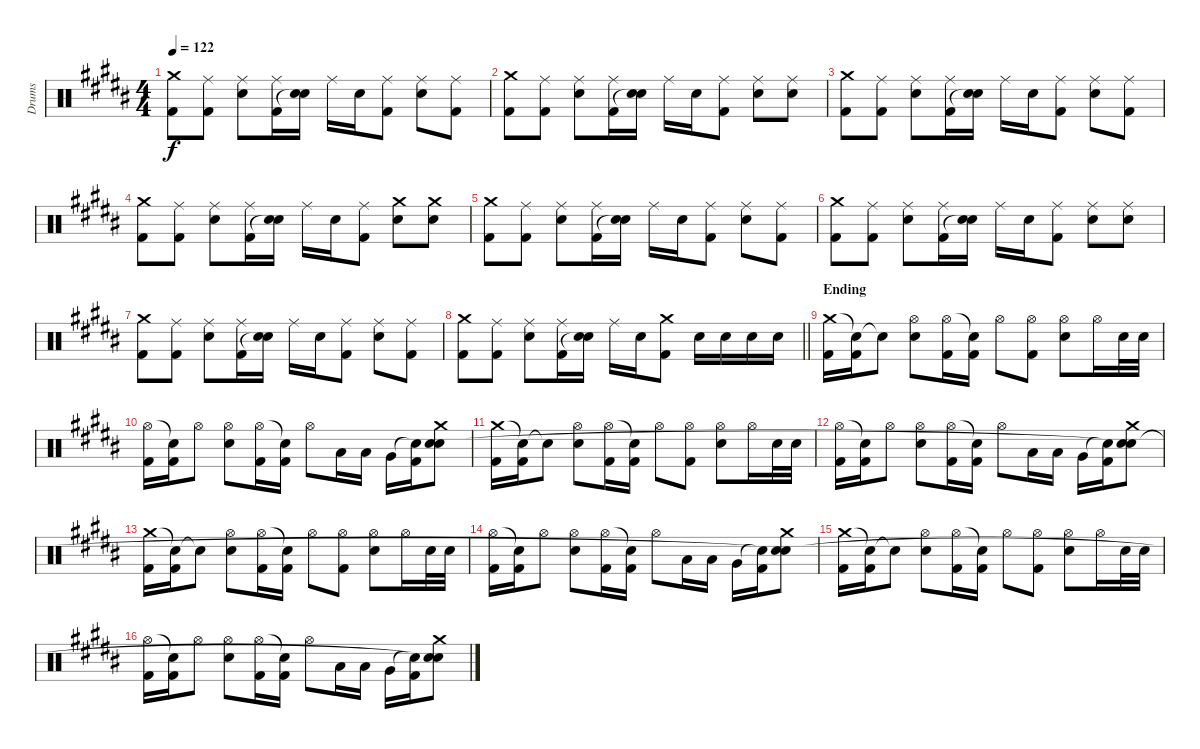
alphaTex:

\track ("Drums" "Drums") {instrument percussion}
\staff {score}
\articulation defaults
\ts (4 4)
\tempo 122
\clef neutral
\ks g#minor
("Crash medium (hit)" "Kick (hit) 2").8{dy f} ("Ride (middle)" "Kick (hit) 2").8 ("Ride (middle)" "Electric Snare (hit)").8 ("Ride (middle)" "Kick (hit) 2").16 ("Electric Snare (hit)" "Snare (hit)"{t}).16 "Ride (middle)".16 "Electric Snare (hit)".16 ("Ride (middle)" "Kick (hit) 2").8 ("Ride (middle)" "Electric Snare (hit)").8 ("Ride (middle)" "Kick (hit) 2").8 |
("Crash medium (hit)" "Kick (hit) 2").8 ("Ride (middle)" "Kick (hit) 2").8 ("Ride (middle)" "Electric Snare (hit)").8 ("Ride (middle)" "Kick (hit) 2").16 ("Electric Snare (hit)" "Snare (hit)"{t}).16 "Ride (middle)".16 "Electric Snare (hit)".16 ("Ride (middle)" "Kick (hit) 2").8 ("Ride (middle)" "Electric Snare (hit)").8 ("Ride (middle)" "Electric Snare (hit)").8 |
("Crash medium (hit)" "Kick (hit) 2").8 ("Ride (middle)" "Kick (hit) 2").8 ("Ride (middle)" "Electric Snare (hit)").8 ("Ride (middle)" "Kick (hit) 2").16 ("Electric Snare (hit)" "Snare (hit)"{t}).16 "Ride (middle)".16 "Electric Snare (hit)".16 ("Ride (middle)" "Kick (hit) 2").8 ("Ride (middle)" "Electric Snare (hit)").8 ("Ride (middle)" "Kick (hit) 2").8 |
("Crash medium (hit)" "Kick (hit) 2").8 ("Ride (middle)" "Kick (hit) 2").8 ("Ride (middle)" "Electric Snare (hit)").8 ("Ride (middle)" "Kick (hit) 2").16 ("Electric Snare (hit)" "Snare (hit)"{t}).16 "Ride (middle)".16 "Electric Snare (hit)".16 ("Ride (middle)" "Kick (hit) 2").8 ("Crash medium (hit)" "Electric Snare (hit)").8 ("Crash medium (hit)" "Electric Snare (hit)").8 |
("Crash medium (hit)" "Kick (hit) 2").8 ("Ride (middle)" "Kick (hit) 2").8 ("Ride (middle)" "Electric Snare (hit)").8 ("Ride (middle)" "Kick (hit) 2").16 ("Electric Snare (hit)" "Snare (hit)"{t}).16 "Ride (middle)".16 "Electric Snare (hit)".16 ("Ride (middle)" "Kick (hit) 2").8 ("Ride (middle)" "Electric Snare (hit)").8 ("Ride (middle)" "Kick (hit) 2").8 |
("Crash medium (hit)" "Kick (hit) 2").8 ("Ride (middle)" "Kick (hit) 2").8 ("Ride (middle)" "Electric Snare (hit)").8 ("Ride (middle)" "Kick (hit) 2").16 ("Electric Snare (hit)" "Snare (hit)"{t}).16 "Ride (middle)".16 "Electric Snare (hit)".16 ("Ride (middle)" "Kick (hit) 2").8 ("Ride (middle)" "Electric Snare (hit)").8 ("Ride (middle)" "Electric Snare (hit)").8 |
("Crash medium (hit)" "Kick (hit) 2").8 ("Ride (middle)" "Kick (hit) 2").8 ("Ride (middle)" "Electric Snare (hit)").8 ("Ride (middle)" "Kick (hit) 2").16 ("Electric Snare (hit)" "Snare (hit)"{t}).16 "Ride (middle)".16 "Electric Snare (hit)".16 ("Ride (middle)" "Kick (hit) 2").8 ("Ride (middle)" "Electric Snare (hit)").8 ("Ride (middle)" "Kick (hit) 2").8 |
\barLineRight lightlight
("Crash medium (hit)" "Kick (hit) 2").8 ("Ride (middle)" "Kick (hit) 2").8 ("Ride (middle)" "Electric Snare (hit)").8 ("Ride (middle)" "Kick (hit) 2").16 ("Electric Snare (hit)" "Snare (hit)"{t}).16 "Ride (middle)".16 "Electric Snare (hit)".16 ("Crash medium (hit)" "Kick (hit) 2").8 "Electric Snare (hit)".16 "Electric Snare (hit)".16 "Electric Snare (hit)".16 "Electric Snare (hit)".16 |
\section ("" "Ending")
("Crash medium (hit)" "Kick (hit) 2").16 ("Snare (hit)"{t} "Kick (hit) 2").16 "Snare (hit)"{t}.8 ("Hi-Hat (open)" "Electric Snare (hit)").8 ("Hi-Hat (open)" "Kick (hit) 2").16 ("Snare (hit)"{t} "Kick (hit) 2").16 "Hi-Hat (open)".8 ("Hi-Hat (open)" "Kick (hit) 2").8 ("Hi-Hat (open)" "Electric Snare (hit)").8 "Hi-Hat (open)".16 "Electric Snare (hit)".32 "Electric Snare (hit)".32 |
("Hi-Hat (open)" "Kick (hit) 2").16 ("Snare (hit)"{t} "Kick (hit) 2").16 "Hi-Hat (open)".8 ("Hi-Hat (open)" "Electric Snare (hit)").8 ("Hi-Hat (open)" "Kick (hit) 2").16 ("Snare (hit)"{t} "Kick (hit) 2").16 "Hi-Hat (open)".8 "Low Tom (hit)".16 "Low Tom (hit)".16 "Very Low Tom (hit)".16 ("Snare (hit)"{t} "Kick (hit) 2").16 ("Crash medium (hit)" "Electric Snare (hit)" "Snare (hit)").8 |
("Crash medium (hit)" "Kick (hit) 2").16 ("Snare (hit)"{t} "Kick (hit) 2").16 "Snare (hit)"{t}.8 ("Hi-Hat (open)" "Electric Snare (hit)").8 ("Hi-Hat (open)" "Kick (hit) 2").16 ("Snare (hit)"{t} "Kick (hit) 2").16 "Hi-Hat (open)".8 ("Hi-Hat (open)" "Kick (hit) 2").8 ("Hi-Hat (open)" "Electric Snare (hit)").8 "Hi-Hat (open)".16 "Electric Snare (hit)".32 "Electric Snare (hit)".32 |
("Hi-Hat (open)" "Kick (hit) 2").16 ("Snare (hit)"{t} "Kick (hit) 2").16 "Hi-Hat (open)".8 ("Hi-Hat (open)" "Electric Snare (hit)").8 ("Hi-Hat (open)" "Kick (hit) 2").16 ("Snare (hit)"{t} "Kick (hit) 2").16 "Hi-Hat (open)".8 "Low Tom (hit)".16 "Low Tom (hit)".16 "Very Low Tom (hit)".16 ("Snare (hit)"{t} "Kick (hit) 2").16 ("Crash medium (hit)" "Electric Snare (hit)" "Snare (hit)"{t}).8 |
("Crash medium (hit)" "Kick (hit) 2").16 ("Snare (hit)"{t} "Kick (hit) 2").16 "Snare (hit)"{t}.8 ("Hi-Hat (open)" "Electric Snare (hit)").8 ("Hi-Hat (open)" "Kick (hit) 2").16 ("Snare (hit)"{t} "Kick (hit) 2").16 "Hi-Hat (open)".8 ("Hi-Hat (open)" "Kick (hit) 2").8 ("Hi-Hat (open)" "Electric Snare (hit)").8 "Hi-Hat (open)".16 "Electric Snare (hit)".32 "Electric Snare (hit)".32 |
("Hi-Hat (open)" "Kick (hit) 2").16 ("Snare (hit)"{t} "Kick (hit) 2").16 "Hi-Hat (open)".8 ("Hi-Hat (open)" "Electric Snare (hit)").8 ("Hi-Hat (open)" "Kick (hit) 2").16 ("Snare (hit)"{t} "Kick (hit) 2").16 "Hi-Hat (open)".8 "Low Tom (hit)".16 "Low Tom (hit)".16 "Very Low Tom (hit)".16 ("Snare (hit)"{t} "Kick (hit) 2").16 ("Crash medium (hit)" "Electric Snare (hit)" "Snare (hit)"{t}).8 |
("Crash medium (hit)" "Kick (hit) 2").16 ("Snare (hit)"{t} "Kick (hit) 2").16 "Snare (hit)"{t}.8 ("Hi-Hat (open)" "Electric Snare (hit)").8 ("Hi-Hat (open)" "Kick (hit) 2").16 ("Snare (hit)"{t} "Kick (hit) 2").16 "Hi-Hat (open)".8 ("Hi-Hat (open)" "Kick (hit) 2").8 ("Hi-Hat (open)" "Electric Snare (hit)").8 "Hi-Hat (open)".16 "Electric Snare (hit)".32 "Electric Snare (hit)".32 |
("Hi-Hat (open)" "Kick (hit) 2").16 ("Snare (hit)"{t} "Kick (hit) 2").16 "Hi-Hat (open)".8 ("Hi-Hat (open)" "Electric Snare (hit)").8 ("Hi-Hat (open)" "Kick (hit) 2").16 ("Snare (hit)"{t} "Kick (hit) 2").16 "Hi-Hat (open)".8 "Low Tom (hit)".16 "Low Tom (hit)".16 "Very Low Tom (hit)".16 ("Snare (hit)"{t} "Kick (hit) 2").16 ("Crash medium (hit)" "Electric Snare (hit)" "Snare (hit)"{t}).8
